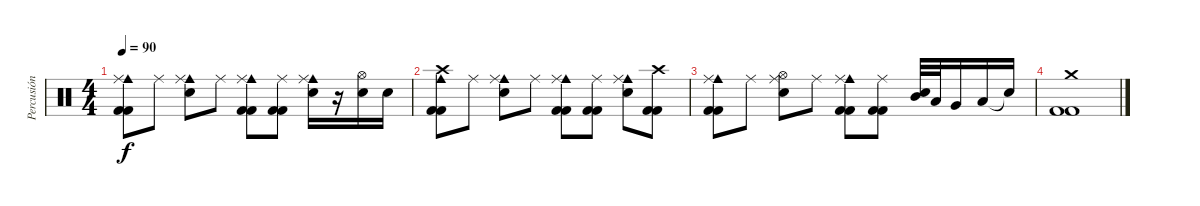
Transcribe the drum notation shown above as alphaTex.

\track ("Percusión" "Percusión") {instrument percussion}
\staff {score}
\articulation defaults
\ts (4 4)
\tempo 90
\clef neutral
\ks c
("Kick (hit) 2" "Cowbell medium (hit)" "Ride (middle)" "Kick (hit) 2").8{dy f} "Ride (middle)".8 ("Electric Snare (hit)" "Cowbell medium (hit)" "Ride (middle)").8 "Ride (middle)".8 ("Kick (hit) 2" "Cowbell medium (hit)" "Ride (middle)" "Kick (hit) 2").8 ("Kick (hit) 2" "Ride (middle)" "Kick (hit) 2").8 ("Electric Snare (hit)" "Cowbell medium (hit)" "Ride (middle)").16 r.16 ("Electric Snare (hit)" "Hi-Hat (open)").16 "Electric Snare (hit)".16 |
("Kick (hit) 2" "Cowbell medium (hit)" "Crash high (hit)" "Kick (hit) 2").8 "Ride (middle)".8 ("Electric Snare (hit)" "Cowbell medium (hit)" "Ride (middle)").8 "Ride (middle)".8 ("Kick (hit) 2" "Cowbell medium (hit)" "Ride (middle)" "Kick (hit) 2").8 ("Kick (hit) 2" "Ride (middle)" "Kick (hit) 2").8 ("Electric Snare (hit)" "Cowbell medium (hit)" "Ride (middle)").8 ("Kick (hit) 2" "Crash high (hit)" "Kick (hit) 2").8 |
("Kick (hit) 2" "Cowbell medium (hit)" "Ride (middle)" "Kick (hit) 2").8 "Ride (middle)".8 ("Electric Snare (hit)" "Hi-Hat (open)" "Ride (middle)").8 "Ride (middle)".8 ("Kick (hit) 2" "Cowbell medium (hit)" "Ride (middle)" "Kick (hit) 2").8 ("Kick (hit) 2" "Ride (middle)" "Kick (hit) 2").8 ("Electric Snare (hit)" "Mid Tom (hit)").32 "Low Tom (hit)".32 "Very Low Tom (hit)".16 "Low Floor Tom (hit)".16 "Snare (hit)"{t}.16 |
("Kick (hit) 2" "Crash medium (hit)" "Kick (hit) 2").1
